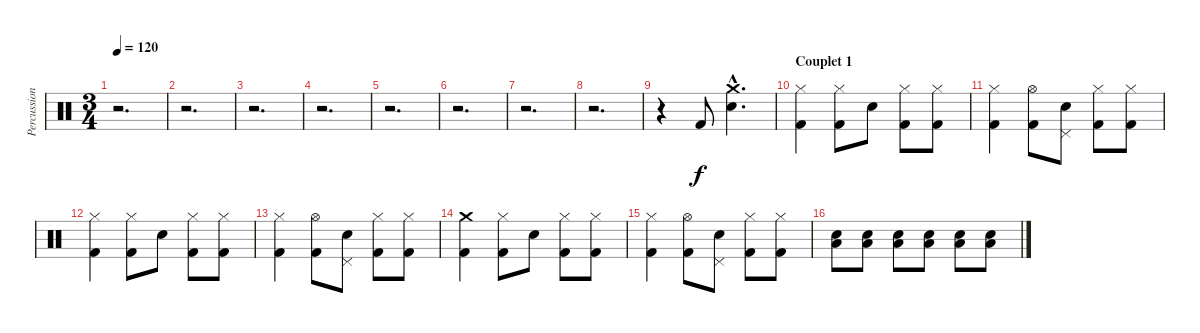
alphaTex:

\track ("Percussions" "Percussion") {instrument percussion}
\staff {score}
\articulation defaults
\ts (3 4)
\tempo 120
\clef neutral
\ks c
r.2{d dy f} |
r.2{d} |
r.2{d} |
r.2{d} |
r.2{d} |
r.2{d} |
r.2{d} |
r.2{d} |
r.4 "Kick (hit) 2".8 ("Crash medium (hit)"{hac} "Snare (hit) 2"{hac}).4{d} |
\section ("" "Couplet 1")
("Hi-Hat (closed)" "Kick (hit) 2").4 ("Hi-Hat (closed)" "Kick (hit) 2").8 "Snare (hit) 2".8 ("Hi-Hat (closed)" "Kick (hit) 2").8 ("Hi-Hat (closed)" "Kick (hit) 2").8 |
("Hi-Hat (closed)" "Kick (hit) 2").4 ("Hi-Hat (open)" "Kick (hit) 2").8 ("Pedal Hi-Hat (hit)" "Snare (hit) 2").8 ("Hi-Hat (closed)" "Kick (hit) 2").8 ("Hi-Hat (closed)" "Kick (hit) 2").8 |
("Hi-Hat (closed)" "Kick (hit) 2").4 ("Hi-Hat (closed)" "Kick (hit) 2").8 "Snare (hit) 2".8 ("Hi-Hat (closed)" "Kick (hit) 2").8 ("Hi-Hat (closed)" "Kick (hit) 2").8 |
("Hi-Hat (closed)" "Kick (hit) 2").4 ("Hi-Hat (open)" "Kick (hit) 2").8 ("Pedal Hi-Hat (hit)" "Snare (hit) 2").8 ("Hi-Hat (closed)" "Kick (hit) 2").8 ("Hi-Hat (closed)" "Kick (hit) 2").8 |
("Crash medium (hit)" "Kick (hit) 2").4 ("Hi-Hat (closed)" "Kick (hit) 2").8 "Snare (hit) 2".8 ("Hi-Hat (closed)" "Kick (hit) 2").8 ("Hi-Hat (closed)" "Kick (hit) 2").8 |
("Hi-Hat (closed)" "Kick (hit) 2").4 ("Hi-Hat (open)" "Kick (hit) 2").8 ("Pedal Hi-Hat (hit)" "Snare (hit) 2").8 ("Hi-Hat (closed)" "Kick (hit) 2").8 ("Hi-Hat (closed)" "Kick (hit) 2").8 |
("Snare (hit) 2" "Low Floor Tom (hit)").8{volume 4} ("Snare (hit) 2" "Low Floor Tom (hit)").8{volume 13} ("Snare (hit) 2" "Low Floor Tom (hit)").8 ("Snare (hit) 2" "Low Floor Tom (hit)").8 ("Snare (hit) 2" "Low Floor Tom (hit)").8 ("Snare (hit) 2" "Low Floor Tom (hit)").8
